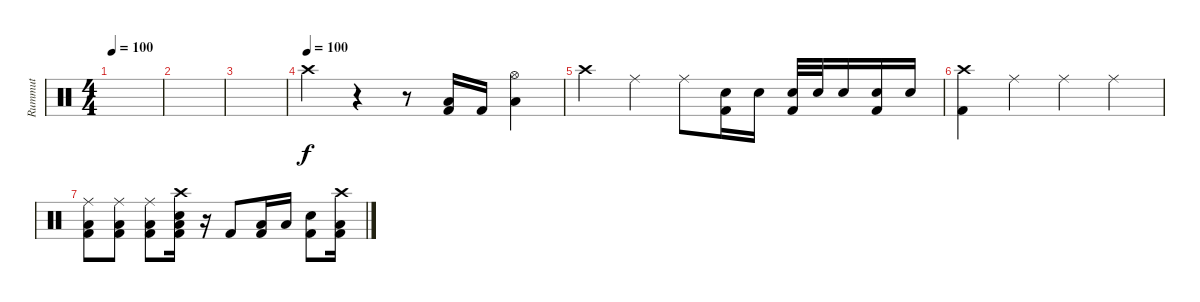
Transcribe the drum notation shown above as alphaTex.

\track ("Rummut" "Rummut") {instrument percussion}
\staff {score}
\articulation defaults
\ts (4 4)
\tempo 100
\clef neutral
\ks c
|
|
|
\tempo (100)
"Crash high (hit)".4 r.4 r.8 ("Low Tom (hit)" "Kick (hit) 2").16 "Kick (hit) 2".16 ("Hi-Hat (open)" "Low Floor Tom (hit)").4 |
"Crash high (hit)".4 "Ride (middle)".4 "Ride (middle)".8 ("Electric Snare (hit)" "Kick (hit) 2").16 "Electric Snare (hit)".16 ("Electric Snare (hit)" "Kick (hit) 2").32 "Electric Snare (hit)".32 "Electric Snare (hit)".16 ("Electric Snare (hit)" "Kick (hit) 2").16 "Electric Snare (hit)".16 |
("Crash high (hit)" "Kick (hit) 2").4 "Ride (middle)".4 "Ride (middle)".4 "Ride (middle)".4 |
("Ride (middle)" "Low Floor Tom (hit)" "Kick (hit) 2").8 ("Ride (middle)" "Low Floor Tom (hit)" "Kick (hit) 2").8 ("Ride (middle)" "Low Floor Tom (hit)" "Kick (hit) 2").8 ("Crash high (hit)" "Snare (hit) 2" "Low Floor Tom (hit)" "Kick (hit) 2").16 r.16 "Kick (hit) 2".8 ("Low Floor Tom (hit)" "Kick (hit) 2").16 "Low Floor Tom (hit)".16 ("Snare (hit) 2" "Kick (hit) 2").8 ("Crash high (hit)" "Low Floor Tom (hit)" "Kick (hit) 2").16
